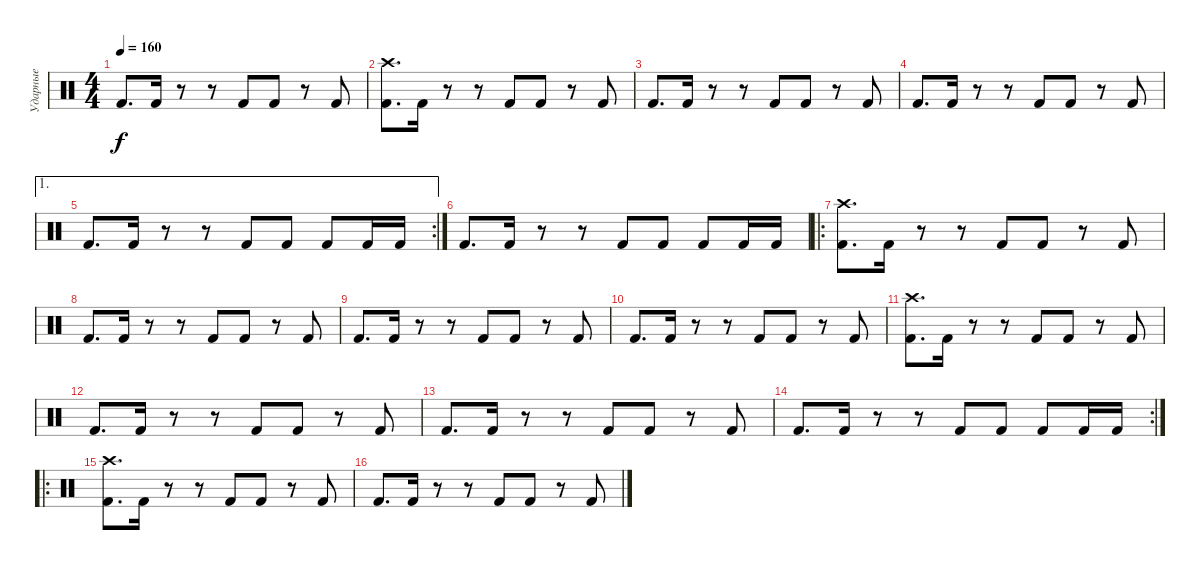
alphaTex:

\track ("Ударные" "Ударные") {instrument percussion}
\staff {score}
\articulation defaults
\ts (4 4)
\tempo 160
\clef neutral
\ks c "Kick (hit) 2".8{d dy f} "Kick (hit) 2".16
r.8 r.8 "Kick (hit) 2".8 "Kick (hit) 2".8 r.8 "Kick (hit) 2".8 |
("Kick (hit) 2" "Crash high (hit)").8{d} "Kick (hit) 2".16 r.8 r.8 "Kick (hit) 2".8 "Kick (hit) 2".8 r.8 "Kick (hit) 2".8 |
"Kick (hit) 2".8{d} "Kick (hit) 2".16 r.8 r.8 "Kick (hit) 2".8 "Kick (hit) 2".8 r.8 "Kick (hit) 2".8 |
"Kick (hit) 2".8{d} "Kick (hit) 2".16 r.8 r.8 "Kick (hit) 2".8 "Kick (hit) 2".8 r.8 "Kick (hit) 2".8 |
\ae 1
\rc 2 "Kick (hit) 2".8{d} "Kick (hit) 2".16
r.8 r.8 "Kick (hit) 2".8 "Kick (hit) 2".8 "Kick (hit) 2".8 "Kick (hit) 2".16 "Kick (hit) 2".16 |
"Kick (hit) 2".8{d} "Kick (hit) 2".16 r.8 r.8 "Kick (hit) 2".8 "Kick (hit) 2".8 "Kick (hit) 2".8 "Kick (hit) 2".16 "Kick (hit) 2".16 |
\ro
("Kick (hit) 2" "Crash high (hit)").8{d} "Kick (hit) 2".16 r.8 r.8 "Kick (hit) 2".8 "Kick (hit) 2".8 r.8 "Kick (hit) 2".8 |
"Kick (hit) 2".8{d} "Kick (hit) 2".16 r.8 r.8 "Kick (hit) 2".8 "Kick (hit) 2".8 r.8 "Kick (hit) 2".8 |
"Kick (hit) 2".8{d} "Kick (hit) 2".16 r.8 r.8 "Kick (hit) 2".8 "Kick (hit) 2".8 r.8 "Kick (hit) 2".8 |
"Kick (hit) 2".8{d} "Kick (hit) 2".16 r.8 r.8 "Kick (hit) 2".8 "Kick (hit) 2".8 r.8 "Kick (hit) 2".8 |
("Kick (hit) 2" "Crash high (hit)").8{d} "Kick (hit) 2".16 r.8 r.8 "Kick (hit) 2".8 "Kick (hit) 2".8 r.8 "Kick (hit) 2".8 |
"Kick (hit) 2".8{d} "Kick (hit) 2".16 r.8 r.8 "Kick (hit) 2".8 "Kick (hit) 2".8 r.8 "Kick (hit) 2".8 |
"Kick (hit) 2".8{d} "Kick (hit) 2".16 r.8 r.8 "Kick (hit) 2".8 "Kick (hit) 2".8 r.8 "Kick (hit) 2".8 |
\rc 2 "Kick (hit) 2".8{d} "Kick (hit) 2".16
r.8 r.8 "Kick (hit) 2".8 "Kick (hit) 2".8 "Kick (hit) 2".8 "Kick (hit) 2".16 "Kick (hit) 2".16 |
\ro
("Kick (hit) 2" "Crash high (hit)").8{d} "Kick (hit) 2".16 r.8 r.8 "Kick (hit) 2".8 "Kick (hit) 2".8 r.8 "Kick (hit) 2".8 |
"Kick (hit) 2".8{d} "Kick (hit) 2".16 r.8 r.8 "Kick (hit) 2".8 "Kick (hit) 2".8 r.8 "Kick (hit) 2".8
